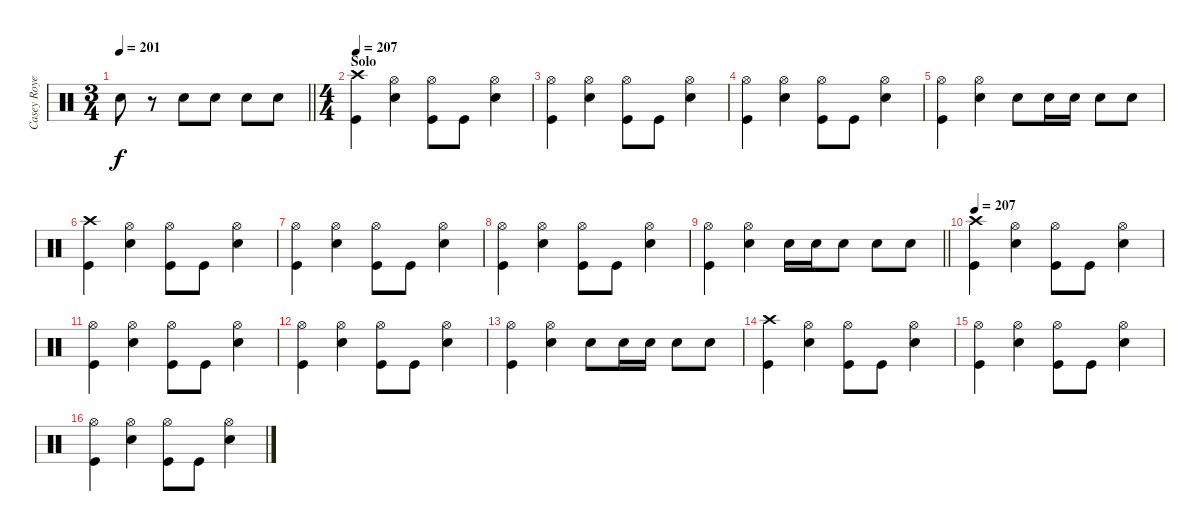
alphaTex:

\track ("Casey Royer (Drums)" "Casey Roye") {instrument percussion}
\staff {score}
\articulation defaults
\ts (3 4)
\tempo 201
\clef neutral
\barLineRight lightlight
\ks c "Snare (hit) 2".8{dy f}
r.8 "Snare (hit) 2".8 "Snare (hit) 2".8 "Snare (hit) 2".8 "Snare (hit) 2".8 |
\ts (4 4)
\section ("" "Solo")
\tempo 207
("Crash high (hit)" "Kick (hit)").4 ("Hi-Hat (open)" "Snare (hit) 2").4 ("Hi-Hat (open)" "Kick (hit)").8 "Kick (hit)".8 ("Hi-Hat (open)" "Snare (hit) 2").4 |
("Hi-Hat (open)" "Kick (hit)").4 ("Hi-Hat (open)" "Snare (hit) 2").4 ("Hi-Hat (open)" "Kick (hit)").8 "Kick (hit)".8 ("Hi-Hat (open)" "Snare (hit) 2").4 |
("Hi-Hat (open)" "Kick (hit)").4 ("Hi-Hat (open)" "Snare (hit) 2").4 ("Hi-Hat (open)" "Kick (hit)").8 "Kick (hit)".8 ("Hi-Hat (open)" "Snare (hit) 2").4 |
("Hi-Hat (open)" "Kick (hit)").4 ("Hi-Hat (open)" "Snare (hit) 2").4 "Snare (hit) 2".8 "Snare (hit) 2".16 "Snare (hit) 2".16 "Snare (hit) 2".8 "Snare (hit) 2".8 |
("Crash high (hit)" "Kick (hit)").4 ("Hi-Hat (open)" "Snare (hit) 2").4 ("Hi-Hat (open)" "Kick (hit)").8 "Kick (hit)".8 ("Hi-Hat (open)" "Snare (hit) 2").4 |
("Hi-Hat (open)" "Kick (hit)").4 ("Hi-Hat (open)" "Snare (hit) 2").4 ("Hi-Hat (open)" "Kick (hit)").8 "Kick (hit)".8 ("Hi-Hat (open)" "Snare (hit) 2").4 |
("Hi-Hat (open)" "Kick (hit)").4 ("Hi-Hat (open)" "Snare (hit) 2").4 ("Hi-Hat (open)" "Kick (hit)").8 "Kick (hit)".8 ("Hi-Hat (open)" "Snare (hit) 2").4 |
\barLineRight lightlight
("Hi-Hat (open)" "Kick (hit)").4 ("Hi-Hat (open)" "Snare (hit) 2").4 "Snare (hit) 2".16 "Snare (hit) 2".16 "Snare (hit) 2".8 "Snare (hit) 2".8 "Snare (hit) 2".8 |
\tempo 207
("Crash high (hit)" "Kick (hit)").4 ("Hi-Hat (open)" "Snare (hit) 2").4 ("Hi-Hat (open)" "Kick (hit)").8 "Kick (hit)".8 ("Hi-Hat (open)" "Snare (hit) 2").4 |
("Hi-Hat (open)" "Kick (hit)").4 ("Hi-Hat (open)" "Snare (hit) 2").4 ("Hi-Hat (open)" "Kick (hit)").8 "Kick (hit)".8 ("Hi-Hat (open)" "Snare (hit) 2").4 |
("Hi-Hat (open)" "Kick (hit)").4 ("Hi-Hat (open)" "Snare (hit) 2").4 ("Hi-Hat (open)" "Kick (hit)").8 "Kick (hit)".8 ("Hi-Hat (open)" "Snare (hit) 2").4 |
("Hi-Hat (open)" "Kick (hit)").4 ("Hi-Hat (open)" "Snare (hit) 2").4 "Snare (hit) 2".8 "Snare (hit) 2".16 "Snare (hit) 2".16 "Snare (hit) 2".8 "Snare (hit) 2".8 |
("Crash high (hit)" "Kick (hit)").4 ("Hi-Hat (open)" "Snare (hit) 2").4 ("Hi-Hat (open)" "Kick (hit)").8 "Kick (hit)".8 ("Hi-Hat (open)" "Snare (hit) 2").4 |
("Hi-Hat (open)" "Kick (hit)").4 ("Hi-Hat (open)" "Snare (hit) 2").4 ("Hi-Hat (open)" "Kick (hit)").8 "Kick (hit)".8 ("Hi-Hat (open)" "Snare (hit) 2").4 |
("Hi-Hat (open)" "Kick (hit)").4 ("Hi-Hat (open)" "Snare (hit) 2").4 ("Hi-Hat (open)" "Kick (hit)").8 "Kick (hit)".8 ("Hi-Hat (open)" "Snare (hit) 2").4
